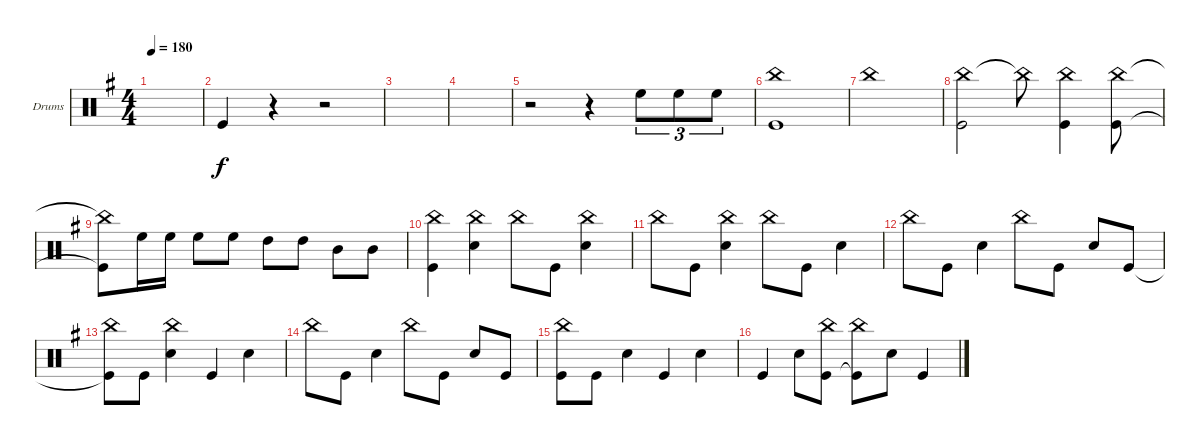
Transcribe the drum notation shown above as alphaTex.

\defaultSystemsLayout 4
\bracketExtendMode groupsimilarinstruments
\firstSystemTrackNameOrientation horizontal
\otherSystemsTrackNameOrientation horizontal
\track ("Drumkit" "Drums") {instrument percussion}
\staff {score}
\articulation defaults
\ts (4 4)
\tempo 180
\clef neutral
\scale
0.504425
\ks g
|
\scale
0.247788 "Kick (hit)".4 r.4 r.2 |
\scale
0.247788 |
\scale
0.333333 |
\scale
0.333333 r.2 r.4 "High Floor Tom (hit)".8{tu (3 2)} "High Floor Tom (hit)".8{tu (3 2)} "High Floor Tom (hit)".8{tu (3 2)} |
\scale
0.333333 ("China (hit)" "Kick (hit)").1 |
\scale
0.333333 "China (hit)".1 |
\scale
0.333333 ("China (hit)" "Kick (hit)").2 "China (hit)"{t}.8 ("China (hit)" "Kick (hit)").4 ("China (hit)" "Kick (hit)").8 |
\scale
0.333333 ("China (hit)"{t} "Kick (hit)"{t}).8 "High Floor Tom (hit)".16 "High Floor Tom (hit)".16 "High Floor Tom (hit)".8 "High Floor Tom (hit)".8 "High Tom (hit)".8 "High Tom (hit)".8 "Mid Tom (hit)".8 "Mid Tom (hit)".8 |
\scale
0.333333 ("Kick (hit)" "China (hit)").4 ("Snare (hit) 2" "China (hit)").4 "China (hit)".8 "Kick (hit)".8 ("Snare (hit) 2" "China (hit)").4 |
\scale
0.333333 "China (hit)".8 "Kick (hit)".8 ("Snare (hit) 2" "China (hit)").4 "China (hit)".8 "Kick (hit)".8 "Snare (hit) 2".4 |
\scale
0.333333 "China (hit)".8 "Kick (hit)".8 "Snare (hit) 2".4 "China (hit)".8 "Kick (hit)".8 "Snare (hit) 2".8 "Kick (hit)".8 |
\scale
0.333333 ("Kick (hit)"{t} "China (hit)").8 "Kick (hit)".8 ("Snare (hit) 2" "China (hit)").4 "Kick (hit)".4 "Snare (hit) 2".4 |
\scale
0.333333 "China (hit)".8 "Kick (hit)".8 "Snare (hit) 2".4 "China (hit)".8 "Kick (hit)".8 "Snare (hit) 2".8 "Kick (hit)".8 |
\scale
0.333333 ("Kick (hit)" "China (hit)").8 "Kick (hit)".8 "Snare (hit) 2".4 "Kick (hit)".4 "Snare (hit) 2".4 |
\scale
0.311111 "Kick (hit)".4 "Snare (hit) 2".8 ("Kick (hit)" "China (hit)").8 ("Kick (hit)"{t} "China (hit)").8 "Snare (hit) 2".8 "Kick (hit)".4
